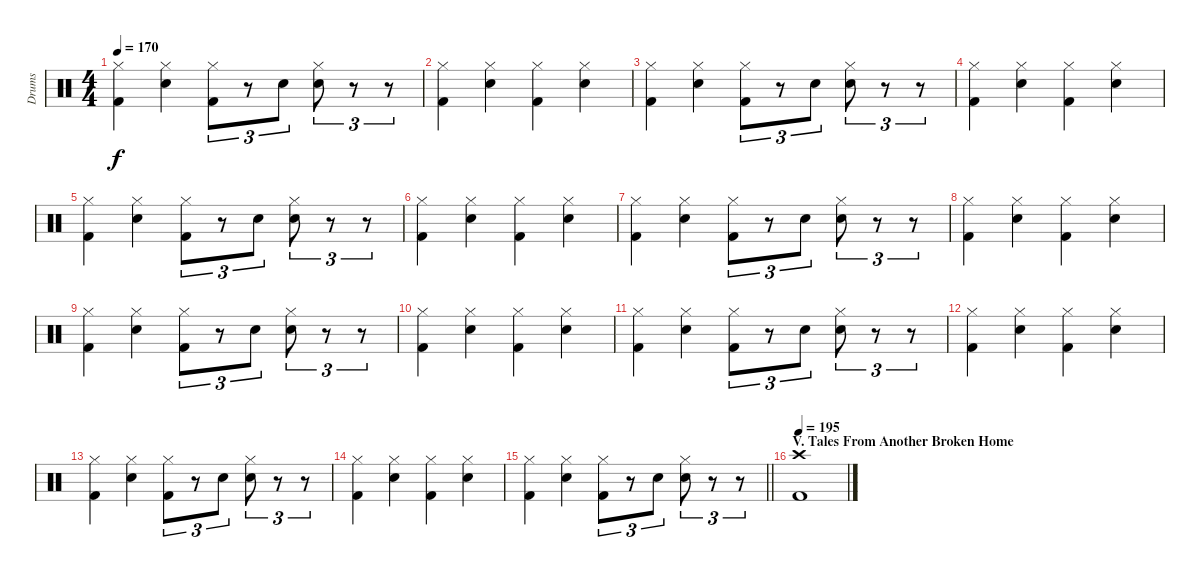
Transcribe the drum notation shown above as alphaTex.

\track ("Drums" "Drums") {instrument percussion}
\staff {score}
\articulation defaults
\ts (4 4)
\tempo 170
\clef neutral
\ks c
("Hi-Hat (closed)" "Kick (hit) 2").4{dy f} ("Hi-Hat (closed)" "Snare (hit) 2").4 ("Hi-Hat (closed)" "Kick (hit) 2").8{tu (3 2)} r.8{tu (3 2)} "Snare (hit) 2".8{tu (3 2)} ("Hi-Hat (closed)" "Snare (hit) 2").8{tu (3 2)} r.8{tu (3 2)} r.8{tu (3 2)} |
("Hi-Hat (closed)" "Kick (hit) 2").4 ("Hi-Hat (closed)" "Snare (hit) 2").4 ("Hi-Hat (closed)" "Kick (hit) 2").4 ("Hi-Hat (closed)" "Snare (hit) 2").4 |
("Hi-Hat (closed)" "Kick (hit) 2").4 ("Hi-Hat (closed)" "Snare (hit) 2").4 ("Hi-Hat (closed)" "Kick (hit) 2").8{tu (3 2)} r.8{tu (3 2)} "Snare (hit) 2".8{tu (3 2)} ("Hi-Hat (closed)" "Snare (hit) 2").8{tu (3 2)} r.8{tu (3 2)} r.8{tu (3 2)} |
("Hi-Hat (closed)" "Kick (hit) 2").4 ("Hi-Hat (closed)" "Snare (hit) 2").4 ("Hi-Hat (closed)" "Kick (hit) 2").4 ("Hi-Hat (closed)" "Snare (hit) 2").4 |
("Hi-Hat (closed)" "Kick (hit) 2").4 ("Hi-Hat (closed)" "Snare (hit) 2").4 ("Hi-Hat (closed)" "Kick (hit) 2").8{tu (3 2)} r.8{tu (3 2)} "Snare (hit) 2".8{tu (3 2)} ("Hi-Hat (closed)" "Snare (hit) 2").8{tu (3 2)} r.8{tu (3 2)} r.8{tu (3 2)} |
("Hi-Hat (closed)" "Kick (hit) 2").4 ("Hi-Hat (closed)" "Snare (hit) 2").4 ("Hi-Hat (closed)" "Kick (hit) 2").4 ("Hi-Hat (closed)" "Snare (hit) 2").4 |
("Hi-Hat (closed)" "Kick (hit) 2").4 ("Hi-Hat (closed)" "Snare (hit) 2").4 ("Hi-Hat (closed)" "Kick (hit) 2").8{tu (3 2)} r.8{tu (3 2)} "Snare (hit) 2".8{tu (3 2)} ("Hi-Hat (closed)" "Snare (hit) 2").8{tu (3 2)} r.8{tu (3 2)} r.8{tu (3 2)} |
("Hi-Hat (closed)" "Kick (hit) 2").4 ("Hi-Hat (closed)" "Snare (hit) 2").4 ("Hi-Hat (closed)" "Kick (hit) 2").4 ("Hi-Hat (closed)" "Snare (hit) 2").4 |
("Hi-Hat (closed)" "Kick (hit) 2").4 ("Hi-Hat (closed)" "Snare (hit) 2").4 ("Hi-Hat (closed)" "Kick (hit) 2").8{tu (3 2)} r.8{tu (3 2)} "Snare (hit) 2".8{tu (3 2)} ("Hi-Hat (closed)" "Snare (hit) 2").8{tu (3 2)} r.8{tu (3 2)} r.8{tu (3 2)} |
("Hi-Hat (closed)" "Kick (hit) 2").4 ("Hi-Hat (closed)" "Snare (hit) 2").4 ("Hi-Hat (closed)" "Kick (hit) 2").4 ("Hi-Hat (closed)" "Snare (hit) 2").4 |
("Hi-Hat (closed)" "Kick (hit) 2").4 ("Hi-Hat (closed)" "Snare (hit) 2").4 ("Hi-Hat (closed)" "Kick (hit) 2").8{tu (3 2)} r.8{tu (3 2)} "Snare (hit) 2".8{tu (3 2)} ("Hi-Hat (closed)" "Snare (hit) 2").8{tu (3 2)} r.8{tu (3 2)} r.8{tu (3 2)} |
("Hi-Hat (closed)" "Kick (hit) 2").4 ("Hi-Hat (closed)" "Snare (hit) 2").4 ("Hi-Hat (closed)" "Kick (hit) 2").4 ("Hi-Hat (closed)" "Snare (hit) 2").4 |
("Hi-Hat (closed)" "Kick (hit) 2").4 ("Hi-Hat (closed)" "Snare (hit) 2").4 ("Hi-Hat (closed)" "Kick (hit) 2").8{tu (3 2)} r.8{tu (3 2)} "Snare (hit) 2".8{tu (3 2)} ("Hi-Hat (closed)" "Snare (hit) 2").8{tu (3 2)} r.8{tu (3 2)} r.8{tu (3 2)} |
("Hi-Hat (closed)" "Kick (hit) 2").4 ("Hi-Hat (closed)" "Snare (hit) 2").4 ("Hi-Hat (closed)" "Kick (hit) 2").4 ("Hi-Hat (closed)" "Snare (hit) 2").4 |
\barLineRight lightlight
("Hi-Hat (closed)" "Kick (hit) 2").4 ("Hi-Hat (closed)" "Snare (hit) 2").4 ("Hi-Hat (closed)" "Kick (hit) 2").8{tu (3 2)} r.8{tu (3 2)} "Snare (hit) 2".8{tu (3 2)} ("Hi-Hat (closed)" "Snare (hit) 2").8{tu (3 2)} r.8{tu (3 2)} r.8{tu (3 2)} |
\section ("" "V. Tales From Another Broken Home")
\tempo 195
("Crash high (hit)" "Kick (hit) 2").1
